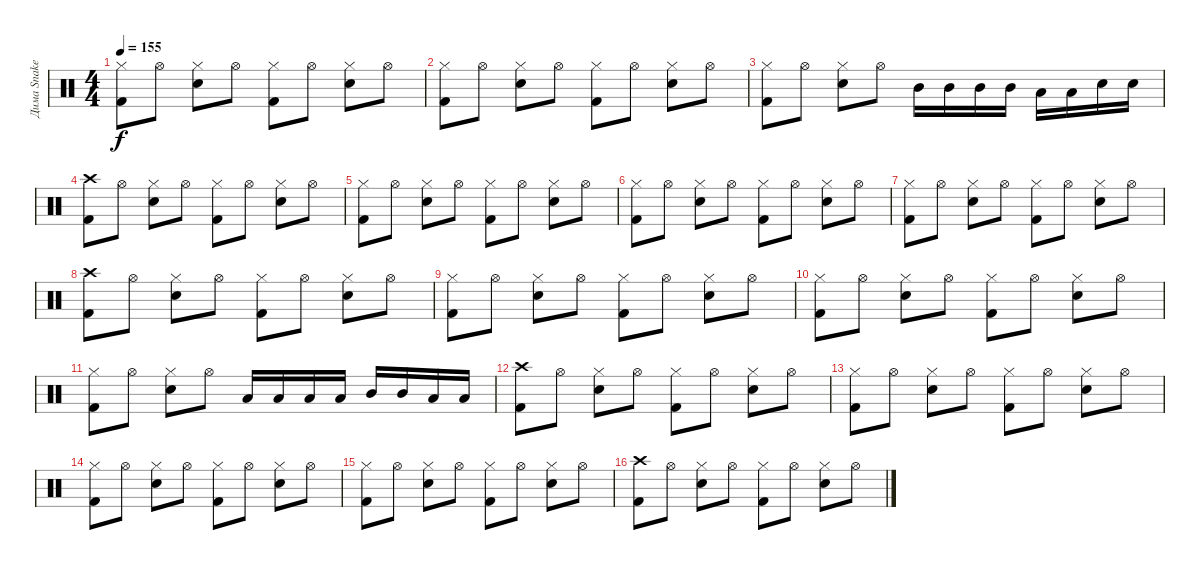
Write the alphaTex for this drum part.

\track ("Дима Snake Хакимов" "Дима Snake") {instrument percussion}
\staff {score}
\articulation defaults
\ts (4 4)
\tempo 155
\clef neutral
\ks c
("Hi-Hat (closed)" "Kick (hit) 2").8{dy f} "Hi-Hat (open)".8 ("Hi-Hat (closed)" "Snare (hit) 2").8 "Hi-Hat (open)".8 ("Hi-Hat (closed)" "Kick (hit) 2").8 "Hi-Hat (open)".8 ("Hi-Hat (closed)" "Snare (hit) 2").8 "Hi-Hat (open)".8 |
("Hi-Hat (closed)" "Kick (hit) 2").8 "Hi-Hat (open)".8 ("Hi-Hat (closed)" "Snare (hit) 2").8 "Hi-Hat (open)".8 ("Hi-Hat (closed)" "Kick (hit) 2").8 "Hi-Hat (open)".8 ("Hi-Hat (closed)" "Snare (hit) 2").8 "Hi-Hat (open)".8 |
("Hi-Hat (closed)" "Kick (hit) 2").8 "Hi-Hat (open)".8 ("Hi-Hat (closed)" "Snare (hit) 2").8 "Hi-Hat (open)".8 "Mid Tom (hit)".16 "Mid Tom (hit)".16 "Mid Tom (hit)".16 "Mid Tom (hit)".16 "Low Tom (hit)".16 "Low Tom (hit)".16 "Snare (hit) 2".16 "Snare (hit) 2".16 |
("Crash high (hit)" "Kick (hit) 2").8 "Hi-Hat (open)".8 ("Hi-Hat (closed)" "Snare (hit) 2").8 "Hi-Hat (open)".8 ("Hi-Hat (closed)" "Kick (hit) 2").8 "Hi-Hat (open)".8 ("Hi-Hat (closed)" "Snare (hit) 2").8 "Hi-Hat (open)".8 |
("Hi-Hat (closed)" "Kick (hit) 2").8 "Hi-Hat (open)".8 ("Hi-Hat (closed)" "Snare (hit) 2").8 "Hi-Hat (open)".8 ("Hi-Hat (closed)" "Kick (hit) 2").8 "Hi-Hat (open)".8 ("Hi-Hat (closed)" "Snare (hit) 2").8 "Hi-Hat (open)".8 |
("Hi-Hat (closed)" "Kick (hit) 2").8 "Hi-Hat (open)".8 ("Hi-Hat (closed)" "Snare (hit) 2").8 "Hi-Hat (open)".8 ("Hi-Hat (closed)" "Kick (hit) 2").8 "Hi-Hat (open)".8 ("Hi-Hat (closed)" "Snare (hit) 2").8 "Hi-Hat (open)".8 |
("Hi-Hat (closed)" "Kick (hit) 2").8 "Hi-Hat (open)".8 ("Hi-Hat (closed)" "Snare (hit) 2").8 "Hi-Hat (open)".8 ("Hi-Hat (closed)" "Kick (hit) 2").8 "Hi-Hat (open)".8 ("Hi-Hat (closed)" "Snare (hit) 2").8 "Hi-Hat (open)".8 |
("Crash high (hit)" "Kick (hit) 2").8 "Hi-Hat (open)".8 ("Hi-Hat (closed)" "Snare (hit) 2").8 "Hi-Hat (open)".8 ("Hi-Hat (closed)" "Kick (hit) 2").8 "Hi-Hat (open)".8 ("Hi-Hat (closed)" "Snare (hit) 2").8 "Hi-Hat (open)".8 |
("Hi-Hat (closed)" "Kick (hit) 2").8 "Hi-Hat (open)".8 ("Hi-Hat (closed)" "Snare (hit) 2").8 "Hi-Hat (open)".8 ("Hi-Hat (closed)" "Kick (hit) 2").8 "Hi-Hat (open)".8 ("Hi-Hat (closed)" "Snare (hit) 2").8 "Hi-Hat (open)".8 |
("Hi-Hat (closed)" "Kick (hit) 2").8 "Hi-Hat (open)".8 ("Hi-Hat (closed)" "Snare (hit) 2").8 "Hi-Hat (open)".8 ("Hi-Hat (closed)" "Kick (hit) 2").8 "Hi-Hat (open)".8 ("Hi-Hat (closed)" "Snare (hit) 2").8 "Hi-Hat (open)".8 |
("Hi-Hat (closed)" "Kick (hit) 2").8 "Hi-Hat (open)".8 ("Hi-Hat (closed)" "Snare (hit) 2").8 "Hi-Hat (open)".8 "Low Tom (hit)".16 "Low Tom (hit)".16 "Low Tom (hit)".16 "Low Tom (hit)".16 "Mid Tom (hit)".16 "Mid Tom (hit)".16 "Low Tom (hit)".16 "Low Tom (hit)".16 |
("Crash high (hit)" "Kick (hit) 2").8 "Hi-Hat (open)".8 ("Hi-Hat (closed)" "Snare (hit) 2").8 "Hi-Hat (open)".8 ("Hi-Hat (closed)" "Kick (hit) 2").8 "Hi-Hat (open)".8 ("Hi-Hat (closed)" "Snare (hit) 2").8 "Hi-Hat (open)".8 |
("Hi-Hat (closed)" "Kick (hit) 2").8 "Hi-Hat (open)".8 ("Hi-Hat (closed)" "Snare (hit) 2").8 "Hi-Hat (open)".8 ("Hi-Hat (closed)" "Kick (hit) 2").8 "Hi-Hat (open)".8 ("Hi-Hat (closed)" "Snare (hit) 2").8 "Hi-Hat (open)".8 |
("Hi-Hat (closed)" "Kick (hit) 2").8 "Hi-Hat (open)".8 ("Hi-Hat (closed)" "Snare (hit) 2").8 "Hi-Hat (open)".8 ("Hi-Hat (closed)" "Kick (hit) 2").8 "Hi-Hat (open)".8 ("Hi-Hat (closed)" "Snare (hit) 2").8 "Hi-Hat (open)".8 |
("Hi-Hat (closed)" "Kick (hit) 2").8 "Hi-Hat (open)".8 ("Hi-Hat (closed)" "Snare (hit) 2").8 "Hi-Hat (open)".8 ("Hi-Hat (closed)" "Kick (hit) 2").8 "Hi-Hat (open)".8 ("Hi-Hat (closed)" "Snare (hit) 2").8 "Hi-Hat (open)".8 |
("Crash high (hit)" "Kick (hit) 2").8 "Hi-Hat (open)".8 ("Hi-Hat (closed)" "Snare (hit) 2").8 "Hi-Hat (open)".8 ("Hi-Hat (closed)" "Kick (hit) 2").8 "Hi-Hat (open)".8 ("Hi-Hat (closed)" "Snare (hit) 2").8 "Hi-Hat (open)".8
